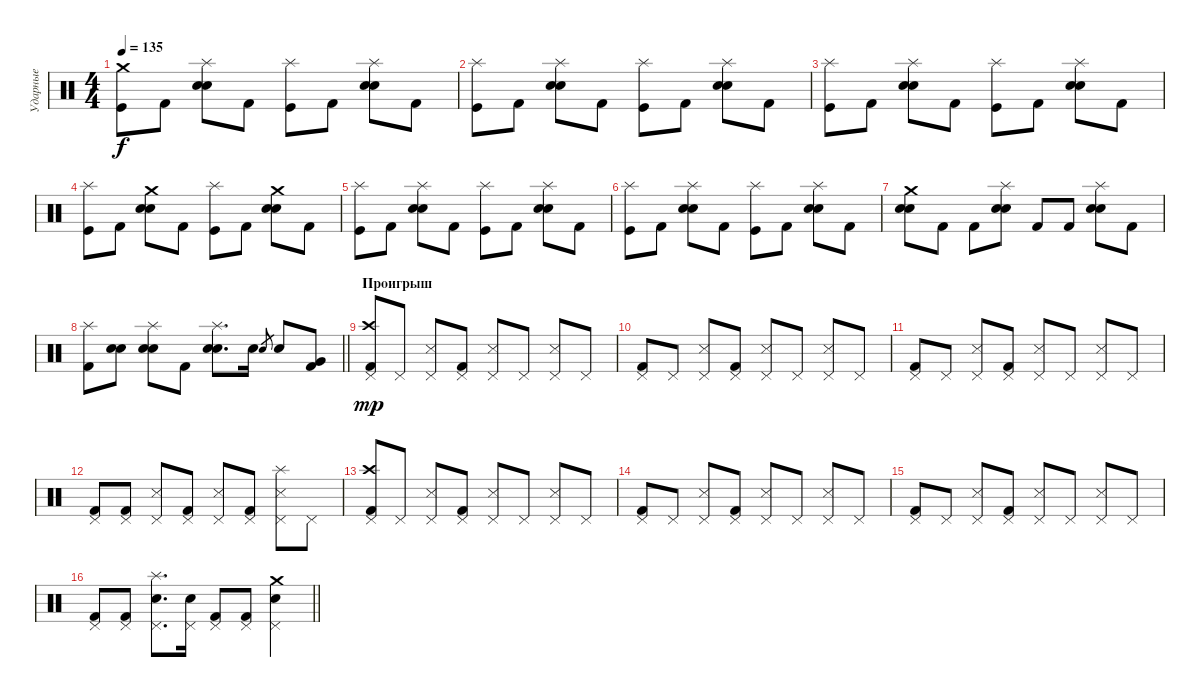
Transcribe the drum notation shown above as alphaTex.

\track ("Ударные" "Ударные") {instrument percussion}
\staff {score}
\articulation defaults
\ts (4 4)
\tempo 135
\clef neutral
\ks c
("Crash medium (hit)" "Kick (hit)").8{dy f} "Kick (hit) 2".8 ("Splash (hit)" "Electric Snare (hit)" "Snare (hit) 2").8 "Kick (hit) 2".8 ("Splash (hit)" "Kick (hit)").8 "Kick (hit) 2".8 ("Splash (hit)" "Electric Snare (hit)" "Snare (hit) 2").8 "Kick (hit) 2".8 |
("Splash (hit)" "Kick (hit)").8 "Kick (hit) 2".8 ("Splash (hit)" "Electric Snare (hit)" "Snare (hit) 2").8 "Kick (hit) 2".8 ("Splash (hit)" "Kick (hit)").8 "Kick (hit) 2".8 ("Splash (hit)" "Electric Snare (hit)" "Snare (hit) 2").8 "Kick (hit) 2".8 |
("Splash (hit)" "Kick (hit)").8 "Kick (hit) 2".8 ("Splash (hit)" "Electric Snare (hit)" "Snare (hit) 2").8 "Kick (hit) 2".8 ("Splash (hit)" "Kick (hit)").8 "Kick (hit) 2".8 ("Splash (hit)" "Electric Snare (hit)" "Snare (hit) 2").8 "Kick (hit) 2".8 |
("Splash (hit)" "Kick (hit)").8 "Kick (hit) 2".8 ("Crash medium (hit)" "Electric Snare (hit)" "Snare (hit) 2").8 "Kick (hit) 2".8 ("Splash (hit)" "Kick (hit)").8 "Kick (hit) 2".8 ("Crash medium (hit)" "Electric Snare (hit)" "Snare (hit) 2").8 "Kick (hit) 2".8 |
("Splash (hit)" "Kick (hit)").8 "Kick (hit) 2".8 ("Splash (hit)" "Electric Snare (hit)" "Snare (hit) 2").8 "Kick (hit) 2".8 ("Splash (hit)" "Kick (hit)").8 "Kick (hit) 2".8 ("Splash (hit)" "Electric Snare (hit)" "Snare (hit) 2").8 "Kick (hit) 2".8 |
("Splash (hit)" "Kick (hit)").8 "Kick (hit) 2".8 ("Splash (hit)" "Electric Snare (hit)" "Snare (hit) 2").8 "Kick (hit) 2".8 ("Splash (hit)" "Kick (hit)").8 "Kick (hit) 2".8 ("Splash (hit)" "Electric Snare (hit)" "Snare (hit) 2").8 "Kick (hit) 2".8 |
("Crash medium (hit)" "Electric Snare (hit)" "Snare (hit) 2").8 "Kick (hit) 2".8 "Kick (hit) 2".8 ("Splash (hit)" "Electric Snare (hit)" "Snare (hit) 2").8 "Kick (hit) 2".8 "Kick (hit) 2".8 ("Splash (hit)" "Electric Snare (hit)" "Snare (hit) 2").8 "Kick (hit) 2".8 |
\barLineRight lightlight
("Splash (hit)" "Kick (hit) 2").8 ("Electric Snare (hit)" "Snare (hit) 2").8 ("Splash (hit)" "Electric Snare (hit)" "Snare (hit) 2").8 "Kick (hit) 2".8 ("Splash (hit)" "Electric Snare (hit)" "Snare (hit) 2").8{d} "Electric Snare (hit)".16 "Electric Snare (hit)".8{gr} "Electric Snare (hit)".8 ("Very Low Tom (hit)" "Kick (hit) 2").8 |
\section ("" "Проигрыш")
("Crash high (hit)" "Pedal Hi-Hat (hit)" "Kick (hit) 2").8{dy mp} "Pedal Hi-Hat (hit)".8 ("Metronome (hit)" "Pedal Hi-Hat (hit)").8 ("Pedal Hi-Hat (hit)" "Kick (hit) 2").8 ("Metronome (hit)" "Pedal Hi-Hat (hit)").8 "Pedal Hi-Hat (hit)".8 ("Metronome (hit)" "Pedal Hi-Hat (hit)").8 "Pedal Hi-Hat (hit)".8 |
("Pedal Hi-Hat (hit)" "Kick (hit) 2").8 "Pedal Hi-Hat (hit)".8 ("Metronome (hit)" "Pedal Hi-Hat (hit)").8 ("Pedal Hi-Hat (hit)" "Kick (hit) 2").8 ("Metronome (hit)" "Pedal Hi-Hat (hit)").8 "Pedal Hi-Hat (hit)".8 ("Metronome (hit)" "Pedal Hi-Hat (hit)").8 "Pedal Hi-Hat (hit)".8 |
("Pedal Hi-Hat (hit)" "Kick (hit) 2").8 "Pedal Hi-Hat (hit)".8 ("Metronome (hit)" "Pedal Hi-Hat (hit)").8 ("Pedal Hi-Hat (hit)" "Kick (hit) 2").8 ("Metronome (hit)" "Pedal Hi-Hat (hit)").8 "Pedal Hi-Hat (hit)".8 ("Metronome (hit)" "Pedal Hi-Hat (hit)").8 "Pedal Hi-Hat (hit)".8 |
("Pedal Hi-Hat (hit)" "Kick (hit) 2").8 ("Pedal Hi-Hat (hit)" "Kick (hit) 2").8 ("Metronome (hit)" "Pedal Hi-Hat (hit)").8 ("Pedal Hi-Hat (hit)" "Kick (hit) 2").8 ("Metronome (hit)" "Pedal Hi-Hat (hit)").8 ("Pedal Hi-Hat (hit)" "Kick (hit) 2").8 ("Splash (hit)" "Metronome (hit)" "Pedal Hi-Hat (hit)").8 "Pedal Hi-Hat (hit)".8 |
("Crash high (hit)" "Pedal Hi-Hat (hit)" "Kick (hit) 2").8 "Pedal Hi-Hat (hit)".8 ("Metronome (hit)" "Pedal Hi-Hat (hit)").8 ("Pedal Hi-Hat (hit)" "Kick (hit) 2").8 ("Metronome (hit)" "Pedal Hi-Hat (hit)").8 "Pedal Hi-Hat (hit)".8 ("Metronome (hit)" "Pedal Hi-Hat (hit)").8 "Pedal Hi-Hat (hit)".8 |
("Pedal Hi-Hat (hit)" "Kick (hit) 2").8 "Pedal Hi-Hat (hit)".8 ("Metronome (hit)" "Pedal Hi-Hat (hit)").8 ("Pedal Hi-Hat (hit)" "Kick (hit) 2").8 ("Metronome (hit)" "Pedal Hi-Hat (hit)").8 "Pedal Hi-Hat (hit)".8 ("Metronome (hit)" "Pedal Hi-Hat (hit)").8 "Pedal Hi-Hat (hit)".8 |
("Pedal Hi-Hat (hit)" "Kick (hit) 2").8 "Pedal Hi-Hat (hit)".8 ("Metronome (hit)" "Pedal Hi-Hat (hit)").8 ("Pedal Hi-Hat (hit)" "Kick (hit) 2").8 ("Metronome (hit)" "Pedal Hi-Hat (hit)").8 "Pedal Hi-Hat (hit)".8 ("Metronome (hit)" "Pedal Hi-Hat (hit)").8 "Pedal Hi-Hat (hit)".8 |
\barLineRight lightlight
("Pedal Hi-Hat (hit)" "Kick (hit) 2").8 ("Pedal Hi-Hat (hit)" "Kick (hit) 2").8 ("Splash (hit)" "Electric Snare (hit)" "Pedal Hi-Hat (hit)").8{d} ("Electric Snare (hit)" "Pedal Hi-Hat (hit)").16 ("Pedal Hi-Hat (hit)" "Kick (hit) 2").8 ("Pedal Hi-Hat (hit)" "Kick (hit) 2").8 ("Crash medium (hit)" "Electric Snare (hit)" "Pedal Hi-Hat (hit)").4
